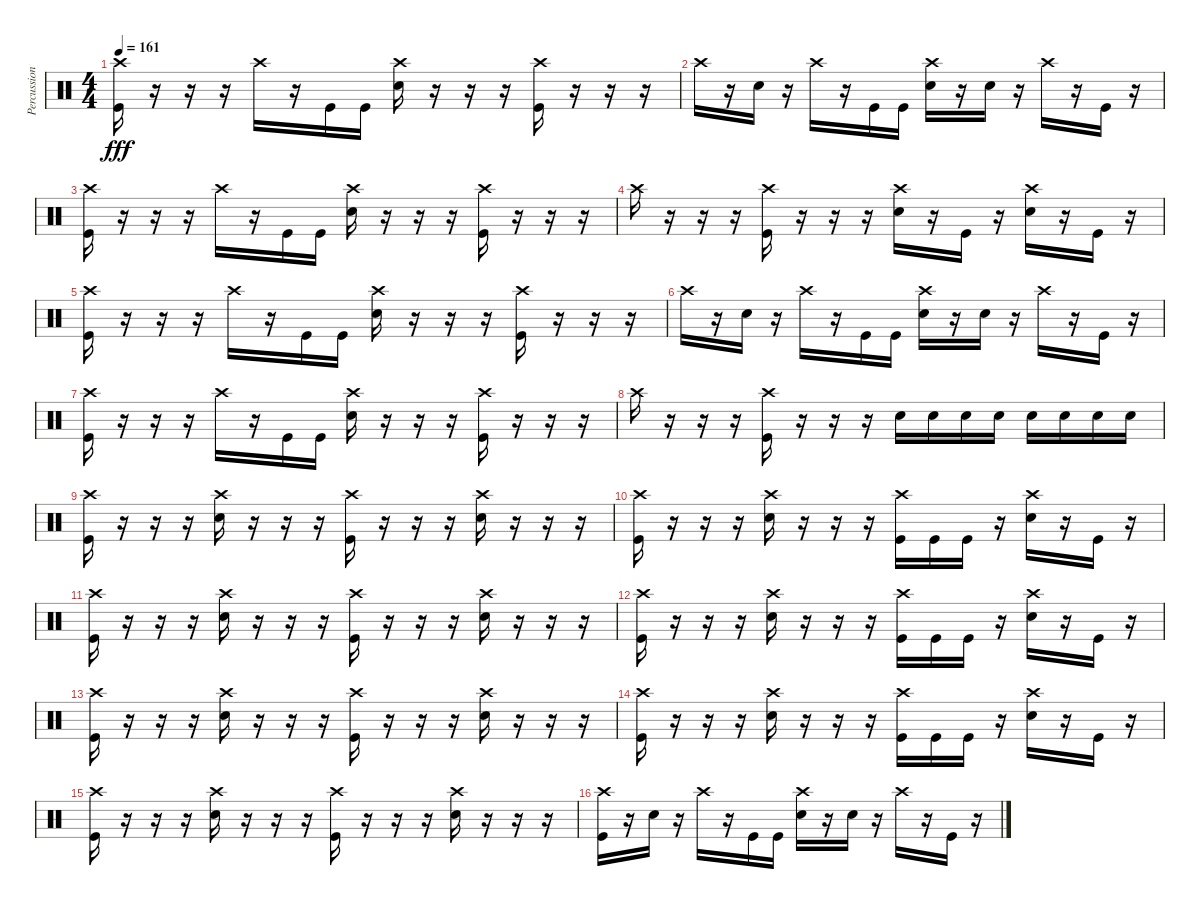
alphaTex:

\track ("Percussion" "Percussion") {instrument percussion}
\staff {score}
\articulation defaults
\ts (4 4)
\tempo 161
\clef neutral
\ks c
("Crash high (hit)" "Kick (hit)").16{dy fff} r.16 r.16 r.16 "Crash high (hit)".16 r.16 "Kick (hit)".16 "Kick (hit)".16 ("Crash high (hit)" "Electric Snare (hit)").16 r.16 r.16 r.16 ("Crash high (hit)" "Kick (hit)").16 r.16 r.16 r.16 |
"Crash high (hit)".16 r.16 "Electric Snare (hit)".16 r.16 "Crash high (hit)".16 r.16 "Kick (hit)".16 "Kick (hit)".16 ("Crash high (hit)" "Electric Snare (hit)").16 r.16 "Electric Snare (hit)".16 r.16 "Crash high (hit)".16 r.16 "Kick (hit)".16 r.16 |
("Crash high (hit)" "Kick (hit)").16 r.16 r.16 r.16 "Crash high (hit)".16 r.16 "Kick (hit)".16 "Kick (hit)".16 ("Crash high (hit)" "Electric Snare (hit)").16 r.16 r.16 r.16 ("Crash high (hit)" "Kick (hit)").16 r.16 r.16 r.16 |
"Crash high (hit)".16 r.16 r.16 r.16 ("Crash high (hit)" "Kick (hit)").16 r.16 r.16 r.16 ("Crash high (hit)" "Electric Snare (hit)").16 r.16 "Kick (hit)".16 r.16 ("Crash high (hit)" "Electric Snare (hit)").16 r.16 "Kick (hit)".16 r.16 |
("Crash high (hit)" "Kick (hit)").16 r.16 r.16 r.16 "Crash high (hit)".16 r.16 "Kick (hit)".16 "Kick (hit)".16 ("Crash high (hit)" "Electric Snare (hit)").16 r.16 r.16 r.16 ("Crash high (hit)" "Kick (hit)").16 r.16 r.16 r.16 |
"Crash high (hit)".16 r.16 "Electric Snare (hit)".16 r.16 "Crash high (hit)".16 r.16 "Kick (hit)".16 "Kick (hit)".16 ("Crash high (hit)" "Electric Snare (hit)").16 r.16 "Electric Snare (hit)".16 r.16 "Crash high (hit)".16 r.16 "Kick (hit)".16 r.16 |
("Crash high (hit)" "Kick (hit)").16 r.16 r.16 r.16 "Crash high (hit)".16 r.16 "Kick (hit)".16 "Kick (hit)".16 ("Crash high (hit)" "Electric Snare (hit)").16 r.16 r.16 r.16 ("Crash high (hit)" "Kick (hit)").16 r.16 r.16 r.16 |
"Crash high (hit)".16 r.16 r.16 r.16 ("Crash high (hit)" "Kick (hit)").16 r.16 r.16 r.16 "Electric Snare (hit)".16 "Electric Snare (hit)".16 "Electric Snare (hit)".16 "Electric Snare (hit)".16 "Electric Snare (hit)".16 "Electric Snare (hit)".16 "Electric Snare (hit)".16 "Electric Snare (hit)".16 |
("Crash high (hit)" "Kick (hit)").16 r.16 r.16 r.16 ("Crash high (hit)" "Electric Snare (hit)").16 r.16 r.16 r.16 ("Crash high (hit)" "Kick (hit)").16 r.16 r.16 r.16 ("Crash high (hit)" "Electric Snare (hit)").16 r.16 r.16 r.16 |
("Crash high (hit)" "Kick (hit)").16 r.16 r.16 r.16 ("Crash high (hit)" "Electric Snare (hit)").16 r.16 r.16 r.16 ("Crash high (hit)" "Kick (hit)").16 "Kick (hit)".16 "Kick (hit)".16 r.16 ("Crash high (hit)" "Electric Snare (hit)").16 r.16 "Kick (hit)".16 r.16 |
("Crash high (hit)" "Kick (hit)").16 r.16 r.16 r.16 ("Crash high (hit)" "Electric Snare (hit)").16 r.16 r.16 r.16 ("Crash high (hit)" "Kick (hit)").16 r.16 r.16 r.16 ("Crash high (hit)" "Electric Snare (hit)").16 r.16 r.16 r.16 |
("Crash high (hit)" "Kick (hit)").16 r.16 r.16 r.16 ("Crash high (hit)" "Electric Snare (hit)").16 r.16 r.16 r.16 ("Crash high (hit)" "Kick (hit)").16 "Kick (hit)".16 "Kick (hit)".16 r.16 ("Crash high (hit)" "Electric Snare (hit)").16 r.16 "Kick (hit)".16 r.16 |
("Crash high (hit)" "Kick (hit)").16 r.16 r.16 r.16 ("Crash high (hit)" "Electric Snare (hit)").16 r.16 r.16 r.16 ("Crash high (hit)" "Kick (hit)").16 r.16 r.16 r.16 ("Crash high (hit)" "Electric Snare (hit)").16 r.16 r.16 r.16 |
("Crash high (hit)" "Kick (hit)").16 r.16 r.16 r.16 ("Crash high (hit)" "Electric Snare (hit)").16 r.16 r.16 r.16 ("Crash high (hit)" "Kick (hit)").16 "Kick (hit)".16 "Kick (hit)".16 r.16 ("Crash high (hit)" "Electric Snare (hit)").16 r.16 "Kick (hit)".16 r.16 |
("Crash high (hit)" "Kick (hit)").16 r.16 r.16 r.16 ("Crash high (hit)" "Electric Snare (hit)").16 r.16 r.16 r.16 ("Crash high (hit)" "Kick (hit)").16 r.16 r.16 r.16 ("Crash high (hit)" "Electric Snare (hit)").16 r.16 r.16 r.16 |
("Crash high (hit)" "Kick (hit)").16 r.16 "Electric Snare (hit)".16 r.16 "Crash high (hit)".16 r.16 "Kick (hit)".16 "Kick (hit)".16 ("Crash high (hit)" "Electric Snare (hit)").16 r.16 "Electric Snare (hit)".16 r.16 "Crash high (hit)".16 r.16 "Kick (hit)".16 r.16
